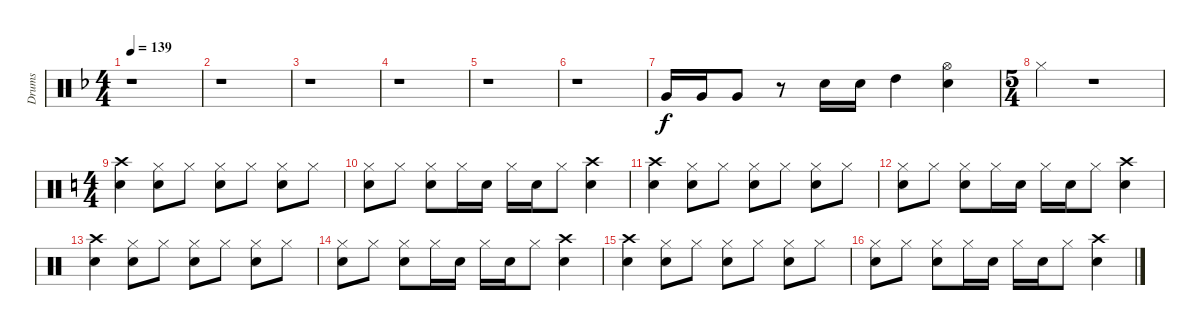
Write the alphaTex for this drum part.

\track ("Drums" "Drums") {instrument percussion}
\staff {score}
\articulation defaults
\ts (4 4)
\tempo 139
\clef neutral
\ks f
r.1{dy f} |
r.1 |
r.1 |
r.1 |
r.1 |
r.1 |
"Very Low Tom (hit)".16 "Very Low Tom (hit)".16 "Very Low Tom (hit)".8 r.8 "Snare (hit) 2".16 "Snare (hit) 2".16 "High Tom (hit)".4 ("Hi-Hat (open)" "Snare (hit) 2").4 |
\ts (5 4)
"Hi-Hat (closed)".4 r.1 |
\ts (4 4)
\ks c
("Crash high (hit)" "Snare (hit) 2").4 ("Hi-Hat (closed)" "Snare (hit) 2").8 "Hi-Hat (closed)".8 ("Hi-Hat (closed)" "Snare (hit) 2").8 "Hi-Hat (closed)".8 ("Hi-Hat (closed)" "Snare (hit) 2").8 "Hi-Hat (closed)".8 |
("Hi-Hat (closed)" "Snare (hit) 2").8 "Hi-Hat (closed)".8 ("Hi-Hat (closed)" "Snare (hit) 2").8 "Hi-Hat (closed)".16 "Snare (hit) 2".16 "Hi-Hat (closed)".16 "Snare (hit) 2".16 "Hi-Hat (closed)".8 ("Crash high (hit)" "Snare (hit) 2").4 |
("Crash high (hit)" "Snare (hit) 2").4 ("Hi-Hat (closed)" "Snare (hit) 2").8 "Hi-Hat (closed)".8 ("Hi-Hat (closed)" "Snare (hit) 2").8 "Hi-Hat (closed)".8 ("Hi-Hat (closed)" "Snare (hit) 2").8 "Hi-Hat (closed)".8 |
("Hi-Hat (closed)" "Snare (hit) 2").8 "Hi-Hat (closed)".8 ("Hi-Hat (closed)" "Snare (hit) 2").8 "Hi-Hat (closed)".16 "Snare (hit) 2".16 "Hi-Hat (closed)".16 "Snare (hit) 2".16 "Hi-Hat (closed)".8 ("Crash high (hit)" "Snare (hit) 2").4 |
("Crash high (hit)" "Snare (hit) 2").4 ("Hi-Hat (closed)" "Snare (hit) 2").8 "Hi-Hat (closed)".8 ("Hi-Hat (closed)" "Snare (hit) 2").8 "Hi-Hat (closed)".8 ("Hi-Hat (closed)" "Snare (hit) 2").8 "Hi-Hat (closed)".8 |
("Hi-Hat (closed)" "Snare (hit) 2").8 "Hi-Hat (closed)".8 ("Hi-Hat (closed)" "Snare (hit) 2").8 "Hi-Hat (closed)".16 "Snare (hit) 2".16 "Hi-Hat (closed)".16 "Snare (hit) 2".16 "Hi-Hat (closed)".8 ("Crash high (hit)" "Snare (hit) 2").4 |
("Crash high (hit)" "Snare (hit) 2").4 ("Hi-Hat (closed)" "Snare (hit) 2").8 "Hi-Hat (closed)".8 ("Hi-Hat (closed)" "Snare (hit) 2").8 "Hi-Hat (closed)".8 ("Hi-Hat (closed)" "Snare (hit) 2").8 "Hi-Hat (closed)".8 |
("Hi-Hat (closed)" "Snare (hit) 2").8 "Hi-Hat (closed)".8 ("Hi-Hat (closed)" "Snare (hit) 2").8 "Hi-Hat (closed)".16 "Snare (hit) 2".16 "Hi-Hat (closed)".16 "Snare (hit) 2".16 "Hi-Hat (closed)".8 ("Crash high (hit)" "Snare (hit) 2").4
